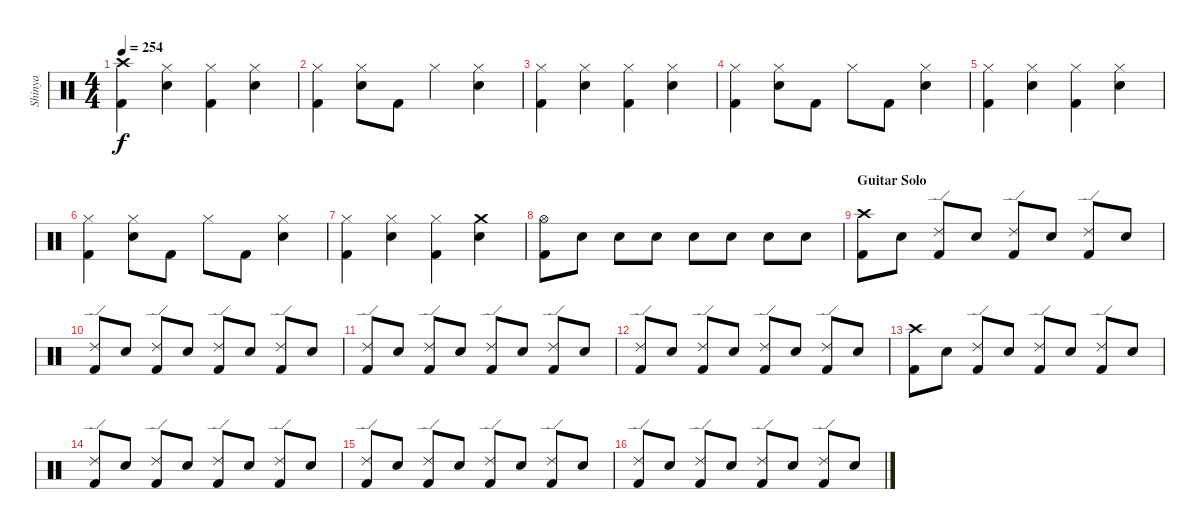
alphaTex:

\track ("Shinya" "Shinya") {instrument percussion}
\staff {score}
\articulation defaults
\ts (4 4)
\tempo 254
\clef neutral
\ks c
("Kick (hit) 2" "Crash high (hit)").4{dy f} ("Electric Snare (hit)" "Hi-Hat (closed)").4 ("Hi-Hat (closed)" "Kick (hit) 2").4 ("Electric Snare (hit)" "Hi-Hat (closed)").4 |
("Hi-Hat (closed)" "Kick (hit) 2").4 ("Hi-Hat (closed)" "Electric Snare (hit)").8 "Kick (hit) 2".8 "Hi-Hat (closed)".4 ("Electric Snare (hit)" "Hi-Hat (closed)").4 |
("Hi-Hat (closed)" "Kick (hit) 2").4 ("Electric Snare (hit)" "Hi-Hat (closed)").4 ("Hi-Hat (closed)" "Kick (hit) 2").4 ("Electric Snare (hit)" "Hi-Hat (closed)").4 |
("Hi-Hat (closed)" "Kick (hit) 2").4 ("Electric Snare (hit)" "Hi-Hat (closed)").8 "Kick (hit) 2".8 "Hi-Hat (closed)".8 "Kick (hit) 2".8 ("Electric Snare (hit)" "Hi-Hat (closed)").4 |
("Hi-Hat (closed)" "Kick (hit) 2").4 ("Electric Snare (hit)" "Hi-Hat (closed)").4 ("Hi-Hat (closed)" "Kick (hit) 2").4 ("Electric Snare (hit)" "Hi-Hat (closed)").4 |
("Hi-Hat (closed)" "Kick (hit) 2").4 ("Electric Snare (hit)" "Hi-Hat (closed)").8 "Kick (hit) 2".8 "Hi-Hat (closed)".8 "Kick (hit) 2".8 ("Electric Snare (hit)" "Hi-Hat (closed)").4 |
("Kick (hit) 2" "Hi-Hat (closed)").4 ("Hi-Hat (closed)" "Electric Snare (hit)").4 ("Kick (hit) 2" "Hi-Hat (closed)").4 ("Electric Snare (hit)" "Crash medium (hit)").4 |
("Hi-Hat (open)" "Kick (hit) 2").8 "Electric Snare (hit)".8 "Electric Snare (hit)".8 "Electric Snare (hit)".8 "Electric Snare (hit)".8 "Electric Snare (hit)".8 "Electric Snare (hit)".8 "Electric Snare (hit)".8 |
\section ("" "Guitar Solo")
("Crash high (hit)" "Kick (hit) 2").8 "Electric Snare (hit)".8 ("Ride (edge) 2" "Kick (hit) 2").8 "Electric Snare (hit)".8 ("Ride (edge) 2" "Kick (hit) 2").8 "Electric Snare (hit)".8 ("Ride (edge) 2" "Kick (hit) 2").8 "Electric Snare (hit)".8 |
("Ride (edge) 2" "Kick (hit) 2").8 "Electric Snare (hit)".8 ("Kick (hit) 2" "Ride (edge) 2").8 "Electric Snare (hit)".8 ("Kick (hit) 2" "Ride (edge) 2").8 "Electric Snare (hit)".8 ("Ride (edge) 2" "Kick (hit) 2").8 "Electric Snare (hit)".8 |
("Kick (hit) 2" "Ride (edge) 2").8 "Electric Snare (hit)".8 ("Kick (hit) 2" "Ride (edge) 2").8 "Electric Snare (hit)".8 ("Ride (edge) 2" "Kick (hit) 2").8 "Electric Snare (hit)".8 ("Ride (edge) 2" "Kick (hit) 2").8 "Electric Snare (hit)".8 |
("Ride (edge) 2" "Kick (hit) 2").8 "Electric Snare (hit)".8 ("Kick (hit) 2" "Ride (edge) 2").8 "Electric Snare (hit)".8 ("Ride (edge) 2" "Kick (hit) 2").8 "Electric Snare (hit)".8 ("Ride (edge) 2" "Kick (hit) 2").8 "Electric Snare (hit)".8 |
("Kick (hit) 2" "Crash high (hit)").8 "Electric Snare (hit)".8 ("Ride (edge) 2" "Kick (hit) 2").8 "Electric Snare (hit)".8 ("Ride (edge) 2" "Kick (hit) 2").8 "Electric Snare (hit)".8 ("Ride (edge) 2" "Kick (hit) 2").8 "Electric Snare (hit)".8 |
("Ride (edge) 2" "Kick (hit) 2").8 "Electric Snare (hit)".8 ("Ride (edge) 2" "Kick (hit) 2").8 "Electric Snare (hit)".8 ("Ride (edge) 2" "Kick (hit) 2").8 "Electric Snare (hit)".8 ("Kick (hit) 2" "Ride (edge) 2").8 "Electric Snare (hit)".8 |
("Ride (edge) 2" "Kick (hit) 2").8 "Electric Snare (hit)".8 ("Kick (hit) 2" "Ride (edge) 2").8 "Electric Snare (hit)".8 ("Kick (hit) 2" "Ride (edge) 2").8 "Electric Snare (hit)".8 ("Ride (edge) 2" "Kick (hit) 2").8 "Electric Snare (hit)".8 |
("Kick (hit) 2" "Ride (edge) 2").8 "Electric Snare (hit)".8 ("Ride (edge) 2" "Kick (hit) 2").8 "Electric Snare (hit)".8 ("Kick (hit) 2" "Ride (edge) 2").8 "Electric Snare (hit)".8 ("Kick (hit) 2" "Ride (edge) 2").8 "Electric Snare (hit)".8
